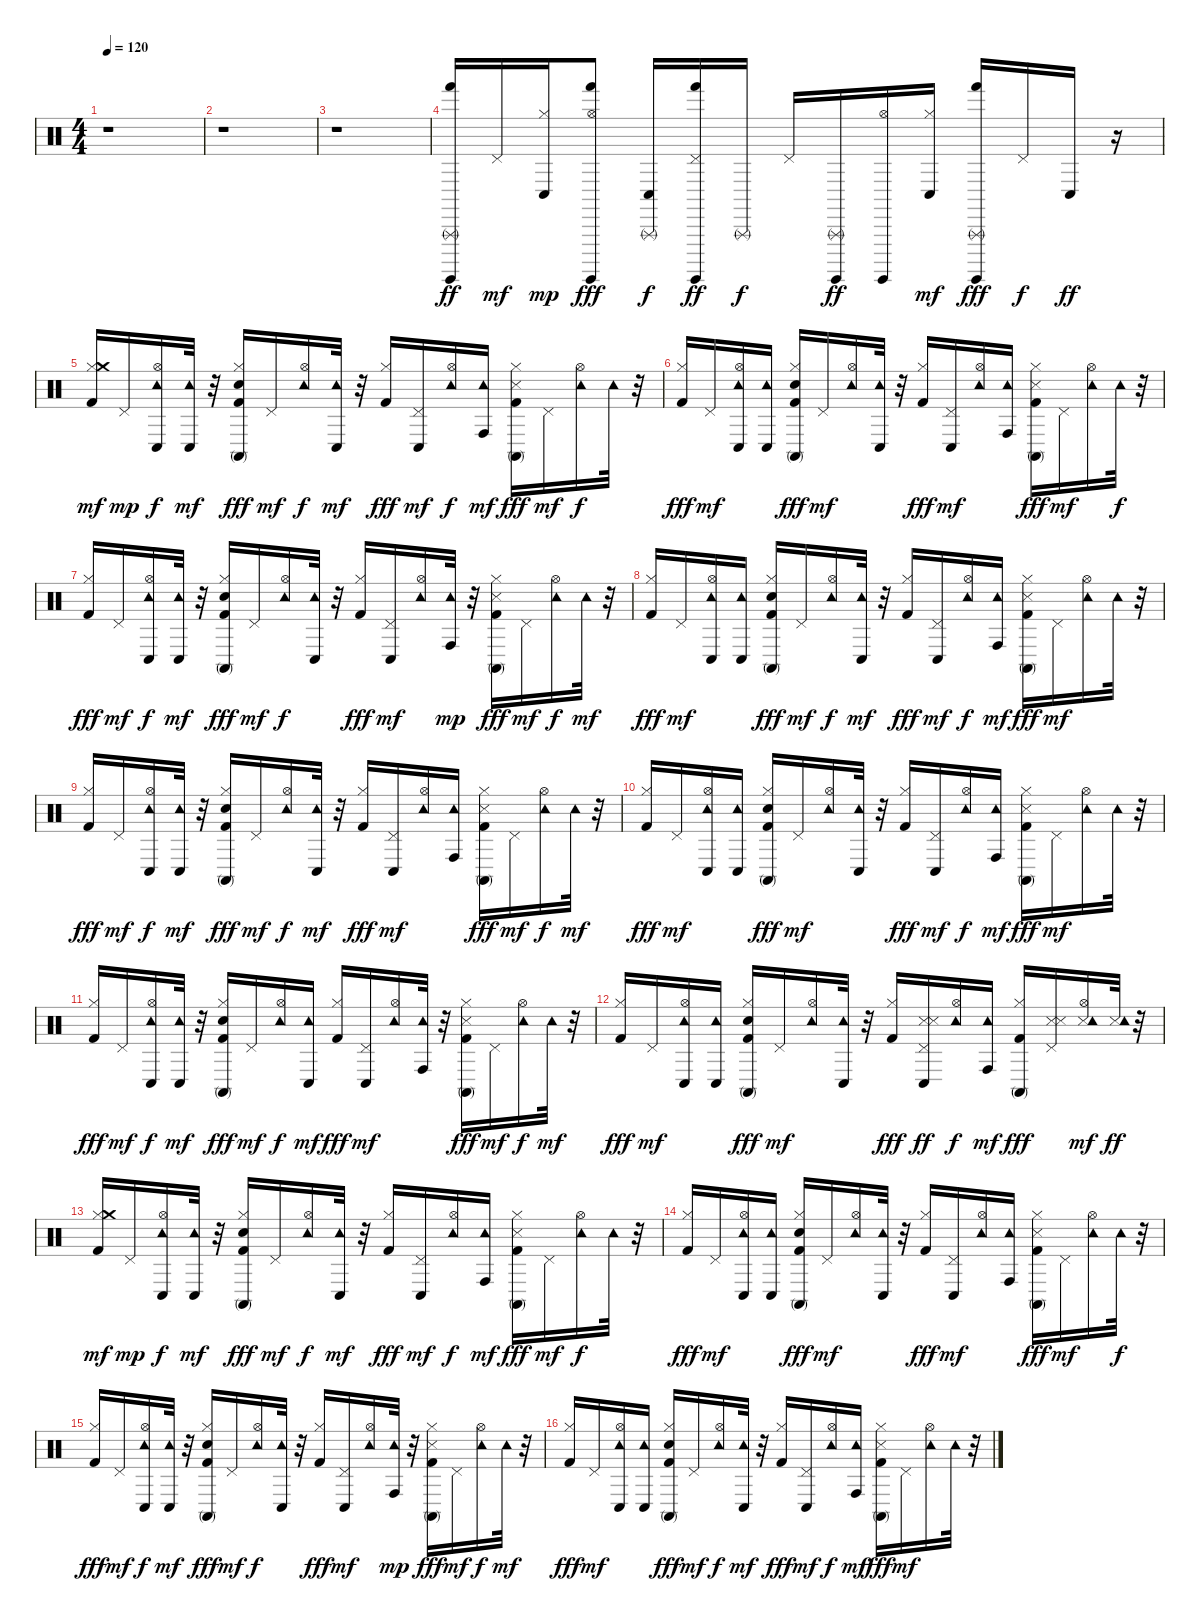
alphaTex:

\track "" {instrument percussion}
\staff {score}
\articulation defaults
\ts (4 4)
\tempo 120
\clef neutral
\ks c
r.1{dy ff} |
r.1 |
r.1 |
("Hand (hit)" "Surdo (hit)" "Triangle (rnute)").16 "Pedal Hi-Hat (hit)".16{dy mf} ("Conga low (hit)" "Hi-Hat (closed)").16{dy mp} ("Hi-Hat (open)" "Surdo (hit)" "Hand (hit)").8{dy fff} ("Triangle (rnute)" "Conga low (hit)").16{dy f} ("Pedal Hi-Hat (hit)" "Hand (hit)" "Surdo (hit)").16{dy ff} "Triangle (rnute)".16{dy f} "Pedal Hi-Hat (hit)".16 ("Triangle (rnute)" "Surdo (hit)").16{dy ff} ("Hi-Hat (open)" "Surdo (hit)").16 ("Conga low (hit)" "Hi-Hat (closed)").16{dy mf} ("Surdo (hit)" "Hand (hit)" "Triangle (rnute)").16{dy fff} "Pedal Hi-Hat (hit)".16{dy f} "Conga low (hit)".16{dy ff} r.16 |
("Hi-Hat (closed)" "Kick (hit) 2" "Crash medium (hit)").16{dy mf} "Pedal Hi-Hat (hit)".16{dy mp} ("Hi-Hat (open)" "Conga low (hit)" "Tambourine (hit)").16{dy f} ("Conga low (hit)" "Tambourine (hit)").32{dy mf} r.32 ("Conga high (mute)" "Kick (hit) 2" "Hi-Hat (closed)" "Snare (hit) 2").16{dy fff} "Pedal Hi-Hat (hit)".16{dy mf} ("Hi-Hat (open)" "Tambourine (hit)").16{dy f} ("Conga low (hit)" "Tambourine (hit)").32{dy mf} r.32 ("Kick (hit) 2" "Hi-Hat (closed)").16{dy fff} ("Conga low (hit)" "Pedal Hi-Hat (hit)").16{dy mf} ("Hi-Hat (open)" "Tambourine (hit)").16{dy f} ("Conga high (hit)" "Tambourine (hit)").16{dy mf} ("Conga high (mute)" "Kick (hit) 2" "Hi-Hat (closed)" "Snare (side stick) 3").16{dy fff} "Pedal Hi-Hat (hit)".16{dy mf} ("Hi-Hat (open)" "Tambourine (hit)").16{dy f} "Tambourine (hit)".32 r.32 |
("Hi-Hat (closed)" "Kick (hit) 2").16{dy fff} "Pedal Hi-Hat (hit)".16{dy mf} ("Hi-Hat (open)" "Conga low (hit)" "Tambourine (hit)").16 ("Conga low (hit)" "Tambourine (hit)").16 ("Hi-Hat (closed)" "Conga high (mute)" "Kick (hit) 2" "Snare (hit) 2").16{dy fff} "Pedal Hi-Hat (hit)".16{dy mf} ("Hi-Hat (open)" "Tambourine (hit)").16 ("Conga low (hit)" "Tambourine (hit)").32 r.32 ("Hi-Hat (closed)" "Kick (hit) 2").16{dy fff} ("Conga low (hit)" "Pedal Hi-Hat (hit)").16{dy mf} ("Hi-Hat (open)" "Tambourine (hit)").16 ("Conga high (hit)" "Tambourine (hit)").16 ("Hi-Hat (closed)" "Conga high (mute)" "Kick (hit) 2" "Snare (side stick) 3").16{dy fff} "Pedal Hi-Hat (hit)".16{dy mf} ("Hi-Hat (open)" "Tambourine (hit)").16 "Tambourine (hit)".32{dy f} r.32 |
("Hi-Hat (closed)" "Kick (hit) 2").16{dy fff} "Pedal Hi-Hat (hit)".16{dy mf} ("Conga low (hit)" "Hi-Hat (open)" "Tambourine (hit)").16{dy f} ("Conga low (hit)" "Tambourine (hit)").32{dy mf} r.32 ("Conga high (mute)" "Kick (hit) 2" "Hi-Hat (closed)" "Snare (hit) 2").16{dy fff} "Pedal Hi-Hat (hit)".16{dy mf} ("Hi-Hat (open)" "Tambourine (hit)").16{dy f} ("Conga low (hit)" "Tambourine (hit)").32 r.32 ("Hi-Hat (closed)" "Kick (hit) 2").16{dy fff} ("Conga low (hit)" "Pedal Hi-Hat (hit)").16{dy mf} ("Hi-Hat (open)" "Tambourine (hit)").16 ("Conga high (hit)" "Tambourine (hit)").32{dy mp} r.32 ("Hi-Hat (closed)" "Conga high (mute)" "Kick (hit) 2" "Snare (side stick) 3").16{dy fff} "Pedal Hi-Hat (hit)".16{dy mf} ("Hi-Hat (open)" "Tambourine (hit)").16{dy f} "Tambourine (hit)".32{dy mf} r.32 |
("Kick (hit) 2" "Hi-Hat (closed)").16{dy fff} "Pedal Hi-Hat (hit)".16{dy mf} ("Conga low (hit)" "Hi-Hat (open)" "Tambourine (hit)").16 ("Conga low (hit)" "Tambourine (hit)").16 ("Conga high (mute)" "Kick (hit) 2" "Hi-Hat (closed)" "Snare (hit) 2").16{dy fff} "Pedal Hi-Hat (hit)".16{dy mf} ("Hi-Hat (open)" "Tambourine (hit)").16{dy f} ("Conga low (hit)" "Tambourine (hit)").32{dy mf} r.32 ("Hi-Hat (closed)" "Kick (hit) 2").16{dy fff} ("Conga low (hit)" "Pedal Hi-Hat (hit)").16{dy mf} ("Hi-Hat (open)" "Tambourine (hit)").16{dy f} ("Conga high (hit)" "Tambourine (hit)").16{dy mf} ("Conga high (mute)" "Kick (hit) 2" "Hi-Hat (closed)" "Snare (side stick) 3").16{dy fff} "Pedal Hi-Hat (hit)".16{dy mf} ("Hi-Hat (open)" "Tambourine (hit)").16 "Tambourine (hit)".32 r.32 |
("Kick (hit) 2" "Hi-Hat (closed)").16{dy fff} "Pedal Hi-Hat (hit)".16{dy mf} ("Conga low (hit)" "Hi-Hat (open)" "Tambourine (hit)").16{dy f} ("Conga low (hit)" "Tambourine (hit)").32{dy mf} r.32 ("Conga high (mute)" "Kick (hit) 2" "Hi-Hat (closed)" "Snare (hit) 2").16{dy fff} "Pedal Hi-Hat (hit)".16{dy mf} ("Hi-Hat (open)" "Tambourine (hit)").16{dy f} ("Conga low (hit)" "Tambourine (hit)").32{dy mf} r.32 ("Kick (hit) 2" "Hi-Hat (closed)").16{dy fff} ("Conga low (hit)" "Pedal Hi-Hat (hit)").16{dy mf} ("Hi-Hat (open)" "Tambourine (hit)").16 ("Conga high (hit)" "Tambourine (hit)").16 ("Conga high (mute)" "Kick (hit) 2" "Hi-Hat (closed)" "Snare (side stick) 3").16{dy fff} "Pedal Hi-Hat (hit)".16{dy mf} ("Hi-Hat (open)" "Tambourine (hit)").16{dy f} "Tambourine (hit)".32{dy mf} r.32 |
("Kick (hit) 2" "Hi-Hat (closed)").16{dy fff} "Pedal Hi-Hat (hit)".16{dy mf} ("Conga low (hit)" "Hi-Hat (open)" "Tambourine (hit)").16 ("Conga low (hit)" "Tambourine (hit)").16 ("Conga high (mute)" "Kick (hit) 2" "Hi-Hat (closed)" "Snare (hit) 2").16{dy fff} "Pedal Hi-Hat (hit)".16{dy mf} ("Hi-Hat (open)" "Tambourine (hit)").16 ("Conga low (hit)" "Tambourine (hit)").32 r.32 ("Kick (hit) 2" "Hi-Hat (closed)").16{dy fff} ("Conga low (hit)" "Pedal Hi-Hat (hit)").16{dy mf} ("Hi-Hat (open)" "Tambourine (hit)").16{dy f} ("Conga high (hit)" "Tambourine (hit)").16{dy mf} ("Hi-Hat (closed)" "Kick (hit) 2" "Conga high (mute)" "Snare (side stick) 3").16{dy fff} "Pedal Hi-Hat (hit)".16{dy mf} ("Hi-Hat (open)" "Tambourine (hit)").16 "Tambourine (hit)".32 r.32 |
("Hi-Hat (closed)" "Kick (hit) 2").16{dy fff} "Pedal Hi-Hat (hit)".16{dy mf} ("Conga low (hit)" "Hi-Hat (open)" "Tambourine (hit)").16{dy f} ("Conga low (hit)" "Tambourine (hit)").32{dy mf} r.32 ("Conga high (mute)" "Kick (hit) 2" "Hi-Hat (closed)" "Snare (hit) 2").16{dy fff} "Pedal Hi-Hat (hit)".16{dy mf} ("Hi-Hat (open)" "Tambourine (hit)").16{dy f} ("Conga low (hit)" "Tambourine (hit)").16{dy mf} ("Kick (hit) 2" "Hi-Hat (closed)").16{dy fff} ("Conga low (hit)" "Pedal Hi-Hat (hit)").16{dy mf} ("Hi-Hat (open)" "Tambourine (hit)").16 ("Conga high (hit)" "Tambourine (hit)").32 r.32 ("Hi-Hat (closed)" "Conga high (mute)" "Kick (hit) 2" "Snare (side stick) 3").16{dy fff} "Pedal Hi-Hat (hit)".16{dy mf} ("Hi-Hat (open)" "Tambourine (hit)").16{dy f} "Tambourine (hit)".32{dy mf} r.32 |
("Kick (hit) 2" "Hi-Hat (closed)").16{dy fff} "Pedal Hi-Hat (hit)".16{dy mf} ("Conga low (hit)" "Hi-Hat (open)" "Tambourine (hit)").16 ("Conga low (hit)" "Tambourine (hit)").16 ("Conga high (mute)" "Kick (hit) 2" "Hi-Hat (closed)" "Snare (hit) 2").16{dy fff} "Pedal Hi-Hat (hit)".16{dy mf} ("Hi-Hat (open)" "Tambourine (hit)").16 ("Conga low (hit)" "Tambourine (hit)").32 r.32 ("Kick (hit) 2" "Hi-Hat (closed)").16{dy fff} ("Conga low (hit)" "Pedal Hi-Hat (hit)" "Snare (side stick) 3" "Snare (side stick) 3").16{dy ff} ("Hi-Hat (open)" "Tambourine (hit)").16{dy f} ("Conga high (hit)" "Tambourine (hit)").16{dy mf} ("Hi-Hat (closed)" "Kick (hit) 2" "Conga high (mute)").16{dy fff} ("Pedal Hi-Hat (hit)" "Snare (side stick) 3" "Snare (side stick) 3").16 ("Hi-Hat (open)" "Snare (side stick) 3" "Tambourine (hit)").16{dy mf} ("Snare (side stick) 3" "Tambourine (hit)").32{dy ff} r.32 |
("Hi-Hat (closed)" "Kick (hit) 2" "Crash medium (hit)").16{dy mf} "Pedal Hi-Hat (hit)".16{dy mp} ("Hi-Hat (open)" "Conga low (hit)" "Tambourine (hit)").16{dy f} ("Conga low (hit)" "Tambourine (hit)").32{dy mf} r.32 ("Conga high (mute)" "Kick (hit) 2" "Hi-Hat (closed)" "Snare (hit) 2").16{dy fff} "Pedal Hi-Hat (hit)".16{dy mf} ("Hi-Hat (open)" "Tambourine (hit)").16{dy f} ("Conga low (hit)" "Tambourine (hit)").32{dy mf} r.32 ("Kick (hit) 2" "Hi-Hat (closed)").16{dy fff} ("Conga low (hit)" "Pedal Hi-Hat (hit)").16{dy mf} ("Hi-Hat (open)" "Tambourine (hit)").16{dy f} ("Conga high (hit)" "Tambourine (hit)").16{dy mf} ("Conga high (mute)" "Kick (hit) 2" "Hi-Hat (closed)" "Snare (side stick) 3").16{dy fff} "Pedal Hi-Hat (hit)".16{dy mf} ("Hi-Hat (open)" "Tambourine (hit)").16{dy f} "Tambourine (hit)".32 r.32 |
("Hi-Hat (closed)" "Kick (hit) 2").16{dy fff} "Pedal Hi-Hat (hit)".16{dy mf} ("Hi-Hat (open)" "Conga low (hit)" "Tambourine (hit)").16 ("Conga low (hit)" "Tambourine (hit)").16 ("Hi-Hat (closed)" "Conga high (mute)" "Kick (hit) 2" "Snare (hit) 2").16{dy fff} "Pedal Hi-Hat (hit)".16{dy mf} ("Hi-Hat (open)" "Tambourine (hit)").16 ("Conga low (hit)" "Tambourine (hit)").32 r.32 ("Hi-Hat (closed)" "Kick (hit) 2").16{dy fff} ("Conga low (hit)" "Pedal Hi-Hat (hit)").16{dy mf} ("Hi-Hat (open)" "Tambourine (hit)").16 ("Conga high (hit)" "Tambourine (hit)").16 ("Hi-Hat (closed)" "Conga high (mute)" "Kick (hit) 2" "Snare (side stick) 3").16{dy fff} "Pedal Hi-Hat (hit)".16{dy mf} ("Hi-Hat (open)" "Tambourine (hit)").16 "Tambourine (hit)".32{dy f} r.32 |
("Hi-Hat (closed)" "Kick (hit) 2").16{dy fff} "Pedal Hi-Hat (hit)".16{dy mf} ("Conga low (hit)" "Hi-Hat (open)" "Tambourine (hit)").16{dy f} ("Conga low (hit)" "Tambourine (hit)").32{dy mf} r.32 ("Conga high (mute)" "Kick (hit) 2" "Hi-Hat (closed)" "Snare (hit) 2").16{dy fff} "Pedal Hi-Hat (hit)".16{dy mf} ("Hi-Hat (open)" "Tambourine (hit)").16{dy f} ("Conga low (hit)" "Tambourine (hit)").32 r.32 ("Hi-Hat (closed)" "Kick (hit) 2").16{dy fff} ("Conga low (hit)" "Pedal Hi-Hat (hit)").16{dy mf} ("Hi-Hat (open)" "Tambourine (hit)").16 ("Conga high (hit)" "Tambourine (hit)").32{dy mp} r.32 ("Hi-Hat (closed)" "Conga high (mute)" "Kick (hit) 2" "Snare (side stick) 3").16{dy fff} "Pedal Hi-Hat (hit)".16{dy mf} ("Hi-Hat (open)" "Tambourine (hit)").16{dy f} "Tambourine (hit)".32{dy mf} r.32 |
("Kick (hit) 2" "Hi-Hat (closed)").16{dy fff} "Pedal Hi-Hat (hit)".16{dy mf} ("Conga low (hit)" "Hi-Hat (open)" "Tambourine (hit)").16 ("Conga low (hit)" "Tambourine (hit)").16 ("Conga high (mute)" "Kick (hit) 2" "Hi-Hat (closed)" "Snare (hit) 2").16{dy fff} "Pedal Hi-Hat (hit)".16{dy mf} ("Hi-Hat (open)" "Tambourine (hit)").16{dy f} ("Conga low (hit)" "Tambourine (hit)").32{dy mf} r.32 ("Hi-Hat (closed)" "Kick (hit) 2").16{dy fff} ("Conga low (hit)" "Pedal Hi-Hat (hit)").16{dy mf} ("Hi-Hat (open)" "Tambourine (hit)").16{dy f} ("Conga high (hit)" "Tambourine (hit)").16{dy mf} ("Conga high (mute)" "Kick (hit) 2" "Hi-Hat (closed)" "Snare (side stick) 3").16{dy fff} "Pedal Hi-Hat (hit)".16{dy mf} ("Hi-Hat (open)" "Tambourine (hit)").16 "Tambourine (hit)".32 r.32
